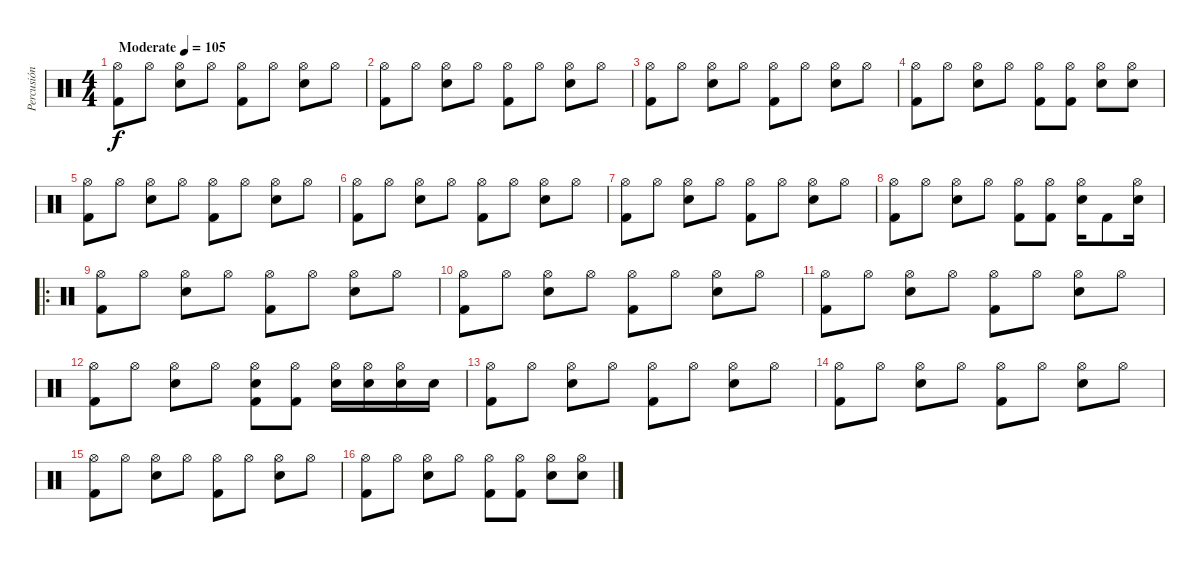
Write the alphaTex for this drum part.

\track ("Percusión" "Percusión") {instrument percussion}
\staff {score}
\articulation defaults
\ts (4 4)
\tempo (105 "Moderate")
\clef neutral
\ks c
("Kick (hit) 2" "Hi-Hat (open)").8{dy f} "Hi-Hat (open)".8 ("Electric Snare (hit)" "Hi-Hat (open)").8 "Hi-Hat (open)".8 ("Kick (hit) 2" "Hi-Hat (open)").8 "Hi-Hat (open)".8 ("Electric Snare (hit)" "Hi-Hat (open)").8 "Hi-Hat (open)".8 |
("Kick (hit) 2" "Hi-Hat (open)").8 "Hi-Hat (open)".8 ("Electric Snare (hit)" "Hi-Hat (open)").8 "Hi-Hat (open)".8 ("Kick (hit) 2" "Hi-Hat (open)").8 "Hi-Hat (open)".8 ("Electric Snare (hit)" "Hi-Hat (open)").8 "Hi-Hat (open)".8 |
("Kick (hit) 2" "Hi-Hat (open)").8 "Hi-Hat (open)".8 ("Electric Snare (hit)" "Hi-Hat (open)").8 "Hi-Hat (open)".8 ("Kick (hit) 2" "Hi-Hat (open)").8 "Hi-Hat (open)".8 ("Electric Snare (hit)" "Hi-Hat (open)").8 "Hi-Hat (open)".8 |
("Kick (hit) 2" "Hi-Hat (open)").8 "Hi-Hat (open)".8 ("Electric Snare (hit)" "Hi-Hat (open)").8 "Hi-Hat (open)".8 ("Kick (hit) 2" "Hi-Hat (open)").8 ("Kick (hit) 2" "Hi-Hat (open)").8 ("Electric Snare (hit)" "Hi-Hat (open)").8 ("Electric Snare (hit)" "Hi-Hat (open)").8 |
("Kick (hit) 2" "Hi-Hat (open)").8 "Hi-Hat (open)".8 ("Electric Snare (hit)" "Hi-Hat (open)").8 "Hi-Hat (open)".8 ("Kick (hit) 2" "Hi-Hat (open)").8 "Hi-Hat (open)".8 ("Electric Snare (hit)" "Hi-Hat (open)").8 "Hi-Hat (open)".8 |
("Kick (hit) 2" "Hi-Hat (open)").8 "Hi-Hat (open)".8 ("Electric Snare (hit)" "Hi-Hat (open)").8 "Hi-Hat (open)".8 ("Kick (hit) 2" "Hi-Hat (open)").8 "Hi-Hat (open)".8 ("Electric Snare (hit)" "Hi-Hat (open)").8 "Hi-Hat (open)".8 |
("Kick (hit) 2" "Hi-Hat (open)").8 "Hi-Hat (open)".8 ("Electric Snare (hit)" "Hi-Hat (open)").8 "Hi-Hat (open)".8 ("Kick (hit) 2" "Hi-Hat (open)").8 "Hi-Hat (open)".8 ("Electric Snare (hit)" "Hi-Hat (open)").8 "Hi-Hat (open)".8 |
("Kick (hit) 2" "Hi-Hat (open)").8 "Hi-Hat (open)".8 ("Electric Snare (hit)" "Hi-Hat (open)").8 "Hi-Hat (open)".8 ("Kick (hit) 2" "Hi-Hat (open)").8 ("Kick (hit) 2" "Hi-Hat (open)").8 ("Electric Snare (hit)" "Hi-Hat (open)").16 "Kick (hit) 2".8 ("Electric Snare (hit)" "Hi-Hat (open)").16 |
\ro
("Kick (hit) 2" "Hi-Hat (open)").8 "Hi-Hat (open)".8 ("Electric Snare (hit)" "Hi-Hat (open)").8 "Hi-Hat (open)".8 ("Kick (hit) 2" "Hi-Hat (open)").8 "Hi-Hat (open)".8 ("Electric Snare (hit)" "Hi-Hat (open)").8 "Hi-Hat (open)".8 |
("Kick (hit) 2" "Hi-Hat (open)").8 "Hi-Hat (open)".8 ("Electric Snare (hit)" "Hi-Hat (open)").8 "Hi-Hat (open)".8 ("Kick (hit) 2" "Hi-Hat (open)").8 "Hi-Hat (open)".8 ("Electric Snare (hit)" "Hi-Hat (open)").8 "Hi-Hat (open)".8 |
("Kick (hit) 2" "Hi-Hat (open)").8 "Hi-Hat (open)".8 ("Electric Snare (hit)" "Hi-Hat (open)").8 "Hi-Hat (open)".8 ("Kick (hit) 2" "Hi-Hat (open)").8 "Hi-Hat (open)".8 ("Electric Snare (hit)" "Hi-Hat (open)").8 "Hi-Hat (open)".8 |
("Kick (hit) 2" "Hi-Hat (open)").8 "Hi-Hat (open)".8 ("Electric Snare (hit)" "Hi-Hat (open)").8 "Hi-Hat (open)".8 ("Kick (hit) 2" "Electric Snare (hit)" "Hi-Hat (open)").8 ("Kick (hit) 2" "Hi-Hat (open)").8 ("Electric Snare (hit)" "Hi-Hat (open)").16 ("Electric Snare (hit)" "Hi-Hat (open)").16 ("Electric Snare (hit)" "Hi-Hat (open)").16 "Electric Snare (hit)".16 |
("Kick (hit) 2" "Hi-Hat (open)").8 "Hi-Hat (open)".8 ("Electric Snare (hit)" "Hi-Hat (open)").8 "Hi-Hat (open)".8 ("Kick (hit) 2" "Hi-Hat (open)").8 "Hi-Hat (open)".8 ("Electric Snare (hit)" "Hi-Hat (open)").8 "Hi-Hat (open)".8 |
("Kick (hit) 2" "Hi-Hat (open)").8 "Hi-Hat (open)".8 ("Electric Snare (hit)" "Hi-Hat (open)").8 "Hi-Hat (open)".8 ("Kick (hit) 2" "Hi-Hat (open)").8 "Hi-Hat (open)".8 ("Electric Snare (hit)" "Hi-Hat (open)").8 "Hi-Hat (open)".8 |
("Kick (hit) 2" "Hi-Hat (open)").8 "Hi-Hat (open)".8 ("Electric Snare (hit)" "Hi-Hat (open)").8 "Hi-Hat (open)".8 ("Kick (hit) 2" "Hi-Hat (open)").8 "Hi-Hat (open)".8 ("Electric Snare (hit)" "Hi-Hat (open)").8 "Hi-Hat (open)".8 |
("Kick (hit) 2" "Hi-Hat (open)").8 "Hi-Hat (open)".8 ("Electric Snare (hit)" "Hi-Hat (open)").8 "Hi-Hat (open)".8 ("Kick (hit) 2" "Hi-Hat (open)").8 ("Kick (hit) 2" "Hi-Hat (open)").8 ("Electric Snare (hit)" "Hi-Hat (open)").8 ("Electric Snare (hit)" "Hi-Hat (open)").8
